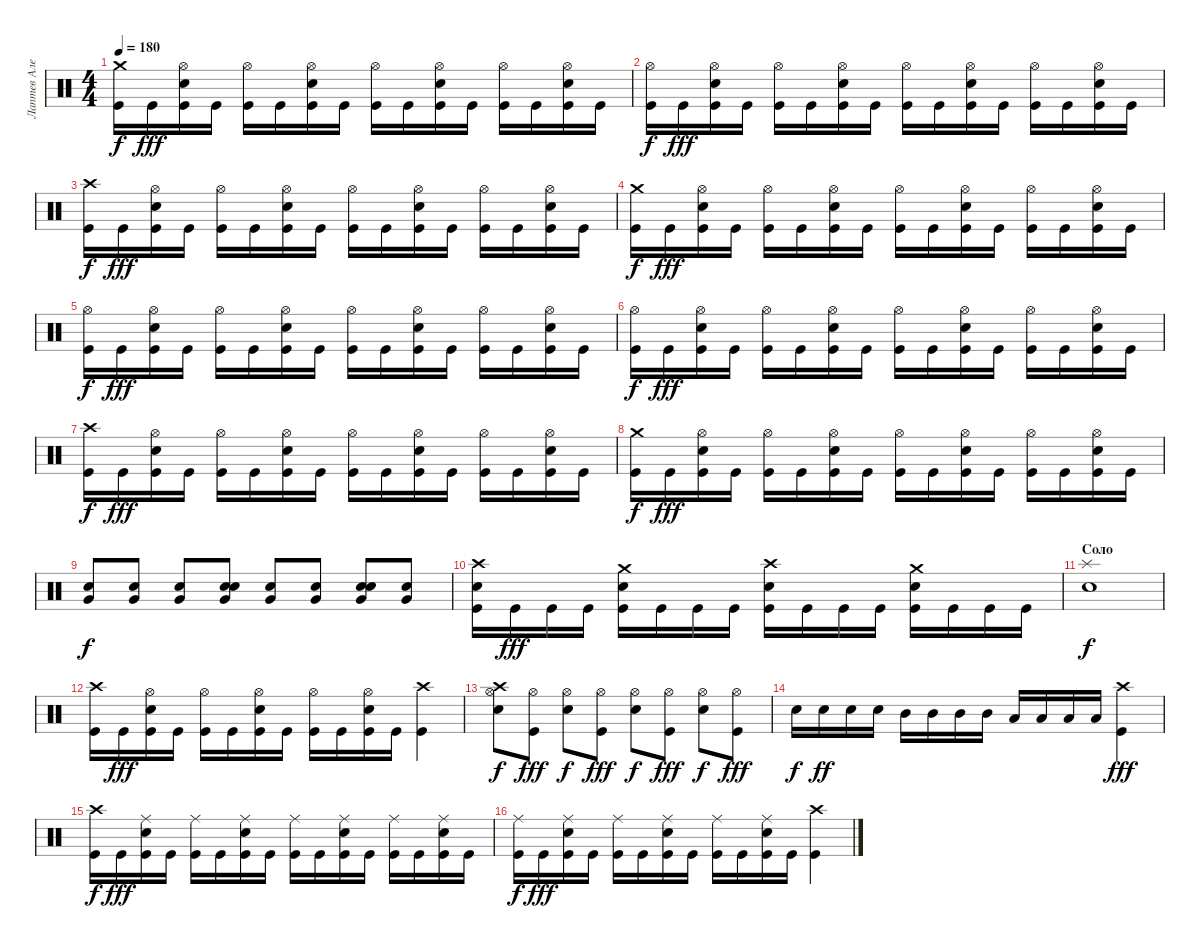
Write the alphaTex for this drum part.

\track ("Лаптев Алексей" "Лаптев Але") {instrument percussion}
\staff {score}
\articulation defaults
\ts (4 4)
\tempo 180
\clef neutral
\ks c
("Crash medium (hit)" "Kick (hit)").16{dy f} "Kick (hit)".16{dy fff} ("Hi-Hat (open)" "Snare (hit) 2" "Kick (hit)").16 "Kick (hit)".16 ("Hi-Hat (open)" "Kick (hit)").16 "Kick (hit)".16 ("Snare (hit) 2" "Hi-Hat (open)" "Kick (hit)").16 "Kick (hit)".16 ("Hi-Hat (open)" "Kick (hit)").16 "Kick (hit)".16 ("Hi-Hat (open)" "Snare (hit) 2" "Kick (hit)").16 "Kick (hit)".16 ("Hi-Hat (open)" "Kick (hit)").16 "Kick (hit)".16 ("Hi-Hat (open)" "Snare (hit) 2" "Kick (hit)").16 "Kick (hit)".16 |
("Hi-Hat (open)" "Kick (hit)").16{dy f} "Kick (hit)".16{dy fff} ("Hi-Hat (open)" "Snare (hit) 2" "Kick (hit)").16 "Kick (hit)".16 ("Hi-Hat (open)" "Kick (hit)").16 "Kick (hit)".16 ("Snare (hit) 2" "Hi-Hat (open)" "Kick (hit)").16 "Kick (hit)".16 ("Hi-Hat (open)" "Kick (hit)").16 "Kick (hit)".16 ("Hi-Hat (open)" "Snare (hit) 2" "Kick (hit)").16 "Kick (hit)".16 ("Hi-Hat (open)" "Kick (hit)").16 "Kick (hit)".16 ("Hi-Hat (open)" "Snare (hit) 2" "Kick (hit)").16 "Kick (hit)".16 |
("Crash high (hit)" "Kick (hit)").16{dy f} "Kick (hit)".16{dy fff} ("Hi-Hat (open)" "Snare (hit) 2" "Kick (hit)").16 "Kick (hit)".16 ("Hi-Hat (open)" "Kick (hit)").16 "Kick (hit)".16 ("Snare (hit) 2" "Hi-Hat (open)" "Kick (hit)").16 "Kick (hit)".16 ("Hi-Hat (open)" "Kick (hit)").16 "Kick (hit)".16 ("Hi-Hat (open)" "Snare (hit) 2" "Kick (hit)").16 "Kick (hit)".16 ("Hi-Hat (open)" "Kick (hit)").16 "Kick (hit)".16 ("Hi-Hat (open)" "Snare (hit) 2" "Kick (hit)").16 "Kick (hit)".16 |
("Crash medium (hit)" "Kick (hit)").16{dy f} "Kick (hit)".16{dy fff} ("Hi-Hat (open)" "Snare (hit) 2" "Kick (hit)").16 "Kick (hit)".16 ("Hi-Hat (open)" "Kick (hit)").16 "Kick (hit)".16 ("Snare (hit) 2" "Hi-Hat (open)" "Kick (hit)").16 "Kick (hit)".16 ("Hi-Hat (open)" "Kick (hit)").16 "Kick (hit)".16 ("Hi-Hat (open)" "Snare (hit) 2" "Kick (hit)").16 "Kick (hit)".16 ("Hi-Hat (open)" "Kick (hit)").16 "Kick (hit)".16 ("Hi-Hat (open)" "Snare (hit) 2" "Kick (hit)").16 "Kick (hit)".16 |
("Hi-Hat (open)" "Kick (hit)").16{dy f} "Kick (hit)".16{dy fff} ("Hi-Hat (open)" "Snare (hit) 2" "Kick (hit)").16 "Kick (hit)".16 ("Hi-Hat (open)" "Kick (hit)").16 "Kick (hit)".16 ("Snare (hit) 2" "Hi-Hat (open)" "Kick (hit)").16 "Kick (hit)".16 ("Hi-Hat (open)" "Kick (hit)").16 "Kick (hit)".16 ("Hi-Hat (open)" "Snare (hit) 2" "Kick (hit)").16 "Kick (hit)".16 ("Hi-Hat (open)" "Kick (hit)").16 "Kick (hit)".16 ("Hi-Hat (open)" "Snare (hit) 2" "Kick (hit)").16 "Kick (hit)".16 |
("Hi-Hat (open)" "Kick (hit)").16{dy f} "Kick (hit)".16{dy fff} ("Hi-Hat (open)" "Snare (hit) 2" "Kick (hit)").16 "Kick (hit)".16 ("Hi-Hat (open)" "Kick (hit)").16 "Kick (hit)".16 ("Snare (hit) 2" "Hi-Hat (open)" "Kick (hit)").16 "Kick (hit)".16 ("Hi-Hat (open)" "Kick (hit)").16 "Kick (hit)".16 ("Hi-Hat (open)" "Snare (hit) 2" "Kick (hit)").16 "Kick (hit)".16 ("Hi-Hat (open)" "Kick (hit)").16 "Kick (hit)".16 ("Hi-Hat (open)" "Snare (hit) 2" "Kick (hit)").16 "Kick (hit)".16 |
("Crash high (hit)" "Kick (hit)").16{dy f} "Kick (hit)".16{dy fff} ("Hi-Hat (open)" "Snare (hit) 2" "Kick (hit)").16 "Kick (hit)".16 ("Hi-Hat (open)" "Kick (hit)").16 "Kick (hit)".16 ("Snare (hit) 2" "Hi-Hat (open)" "Kick (hit)").16 "Kick (hit)".16 ("Hi-Hat (open)" "Kick (hit)").16 "Kick (hit)".16 ("Hi-Hat (open)" "Snare (hit) 2" "Kick (hit)").16 "Kick (hit)".16 ("Hi-Hat (open)" "Kick (hit)").16 "Kick (hit)".16 ("Hi-Hat (open)" "Snare (hit) 2" "Kick (hit)").16 "Kick (hit)".16 |
("Crash medium (hit)" "Kick (hit)").16{dy f} "Kick (hit)".16{dy fff} ("Hi-Hat (open)" "Snare (hit) 2" "Kick (hit)").16 "Kick (hit)".16 ("Hi-Hat (open)" "Kick (hit)").16 "Kick (hit)".16 ("Snare (hit) 2" "Hi-Hat (open)" "Kick (hit)").16 "Kick (hit)".16 ("Hi-Hat (open)" "Kick (hit)").16 "Kick (hit)".16 ("Hi-Hat (open)" "Snare (hit) 2" "Kick (hit)").16 "Kick (hit)".16 ("Hi-Hat (open)" "Kick (hit)").16 "Kick (hit)".16 ("Hi-Hat (open)" "Snare (hit) 2" "Kick (hit)").16 "Kick (hit)".16 |
("Very Low Tom (hit)" "Snare (hit) 2").8{dy f} ("Very Low Tom (hit)" "Snare (hit) 2").8 ("Very Low Tom (hit)" "Snare (hit) 2").8 ("Very Low Tom (hit)" "Snare (hit) 2" "Snare (hit) 2").8 ("Very Low Tom (hit)" "Snare (hit) 2").8 ("Very Low Tom (hit)" "Snare (hit) 2").8 ("Very Low Tom (hit)" "Snare (hit) 2" "Snare (hit) 2").8 ("Very Low Tom (hit)" "Snare (hit) 2").8 |
("Kick (hit)" "Crash high (hit)" "Snare (hit) 2").16 "Kick (hit)".16{dy fff} "Kick (hit)".16 "Kick (hit)".16 ("Snare (hit) 2" "Crash medium (hit)" "Kick (hit)").16 "Kick (hit)".16 "Kick (hit)".16 "Kick (hit)".16 ("Snare (hit) 2" "Crash high (hit)" "Kick (hit)").16 "Kick (hit)".16 "Kick (hit)".16 "Kick (hit)".16 ("Snare (hit) 2" "Crash medium (hit)" "Kick (hit)").16 "Kick (hit)".16 "Kick (hit)".16 "Kick (hit)".16 |
\section ("" "Соло")
("Snare (hit) 2" "Splash (hit)").1{dy f} |
("Crash high (hit)" "Kick (hit)").16 "Kick (hit)".16{dy fff} ("Hi-Hat (open)" "Snare (hit) 2" "Kick (hit)").16 "Kick (hit)".16 ("Hi-Hat (open)" "Kick (hit)").16 "Kick (hit)".16 ("Hi-Hat (open)" "Snare (hit) 2" "Kick (hit)").16 "Kick (hit)".16 ("Hi-Hat (open)" "Kick (hit)").16 "Kick (hit)".16 ("Hi-Hat (open)" "Snare (hit) 2" "Kick (hit)").16 "Kick (hit)".16 ("Crash high (hit)" "Kick (hit)").4 |
("Crash high (hit)" "Hi-Hat (open)" "Snare (hit) 2").8{dy f} ("Hi-Hat (open)" "Kick (hit)").8{dy fff} ("Hi-Hat (open)" "Snare (hit) 2").8{dy f} ("Hi-Hat (open)" "Kick (hit)").8{dy fff} ("Hi-Hat (open)" "Snare (hit) 2").8{dy f} ("Hi-Hat (open)" "Kick (hit)").8{dy fff} ("Hi-Hat (open)" "Snare (hit) 2").8{dy f} ("Hi-Hat (open)" "Kick (hit)").8{dy fff} |
"Electric Snare (hit)".16{dy f} "Electric Snare (hit)".16{dy ff} "Electric Snare (hit)".16 "Electric Snare (hit)".16 "Mid Tom (hit)".16 "Mid Tom (hit)".16 "Mid Tom (hit)".16 "Mid Tom (hit)".16 "Low Tom (hit)".16 "Low Tom (hit)".16 "Low Tom (hit)".16 "Low Tom (hit)".16 ("Crash high (hit)" "Kick (hit)").4{dy fff} |
("Crash high (hit)" "Kick (hit)").16{dy f} "Kick (hit)".16{dy fff} ("Snare (hit) 2" "Ride (middle)" "Kick (hit)").16 "Kick (hit)".16 ("Ride (middle)" "Kick (hit)").16 "Kick (hit)".16 ("Ride (middle)" "Snare (hit) 2" "Kick (hit)").16 "Kick (hit)".16 ("Ride (middle)" "Kick (hit)").16 "Kick (hit)".16 ("Ride (middle)" "Snare (hit) 2" "Kick (hit)").16 "Kick (hit)".16 ("Ride (middle)" "Kick (hit)").16 "Kick (hit)".16 ("Ride (middle)" "Snare (hit) 2" "Kick (hit)").16 "Kick (hit)".16 |
("Ride (middle)" "Kick (hit)").16{dy f} "Kick (hit)".16{dy fff} ("Snare (hit) 2" "Ride (middle)" "Kick (hit)").16 "Kick (hit)".16 ("Ride (middle)" "Kick (hit)").16 "Kick (hit)".16 ("Ride (middle)" "Snare (hit) 2" "Kick (hit)").16 "Kick (hit)".16 ("Ride (middle)" "Kick (hit)").16 "Kick (hit)".16 ("Ride (middle)" "Snare (hit) 2" "Kick (hit)").16 "Kick (hit)".16 ("Crash high (hit)" "Kick (hit)").4
